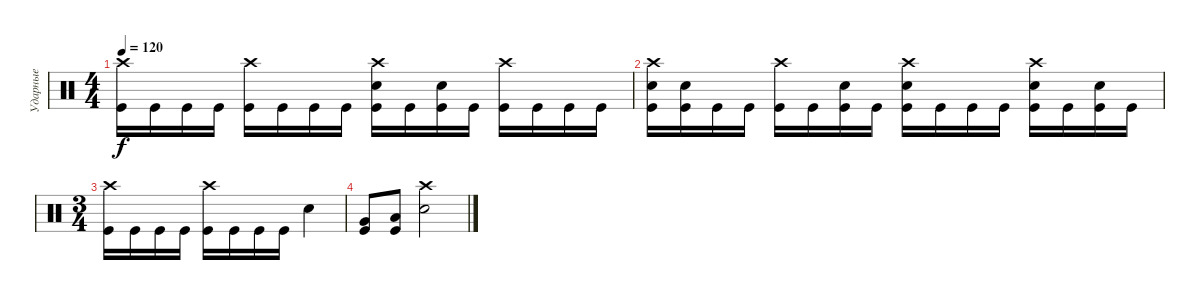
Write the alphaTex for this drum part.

\track ("Ударные" "Ударные") {instrument percussion}
\staff {score}
\articulation defaults
\ts (4 4)
\tempo 120
\clef neutral
\ks c
("Crash high (hit)" "Kick (hit)").16{dy f} "Kick (hit)".16 "Kick (hit)".16 "Kick (hit)".16 ("Crash high (hit)" "Kick (hit)").16 "Kick (hit)".16 "Kick (hit)".16 "Kick (hit)".16 ("Crash high (hit)" "Electric Snare (hit)" "Kick (hit)").16 "Kick (hit)".16 ("Electric Snare (hit)" "Kick (hit)").16 "Kick (hit)".16 ("Crash high (hit)" "Kick (hit)").16 "Kick (hit)".16 "Kick (hit)".16 "Kick (hit)".16 |
("Crash high (hit)" "Electric Snare (hit)" "Kick (hit)").16 ("Electric Snare (hit)" "Kick (hit)").16 "Kick (hit)".16 "Kick (hit)".16 ("Crash high (hit)" "Kick (hit)").16 "Kick (hit)".16 ("Electric Snare (hit)" "Kick (hit)").16 "Kick (hit)".16 ("Crash high (hit)" "Electric Snare (hit)" "Kick (hit)").16 "Kick (hit)".16 "Kick (hit)".16 "Kick (hit)".16 ("Crash high (hit)" "Electric Snare (hit)" "Kick (hit)").16 "Kick (hit)".16 ("Electric Snare (hit)" "Kick (hit)").16 "Kick (hit)".16 |
\ts (3 4)
("Crash high (hit)" "Kick (hit)").16 "Kick (hit)".16 "Kick (hit)".16 "Kick (hit)".16 ("Crash high (hit)" "Kick (hit)").16 "Kick (hit)".16 "Kick (hit)".16 "Kick (hit)".16 "Electric Snare (hit)".4 |
("Very Low Tom (hit)" "Kick (hit)").8 ("Low Floor Tom (hit)" "Kick (hit)").8 ("Crash high (hit)" "Electric Snare (hit)").2
